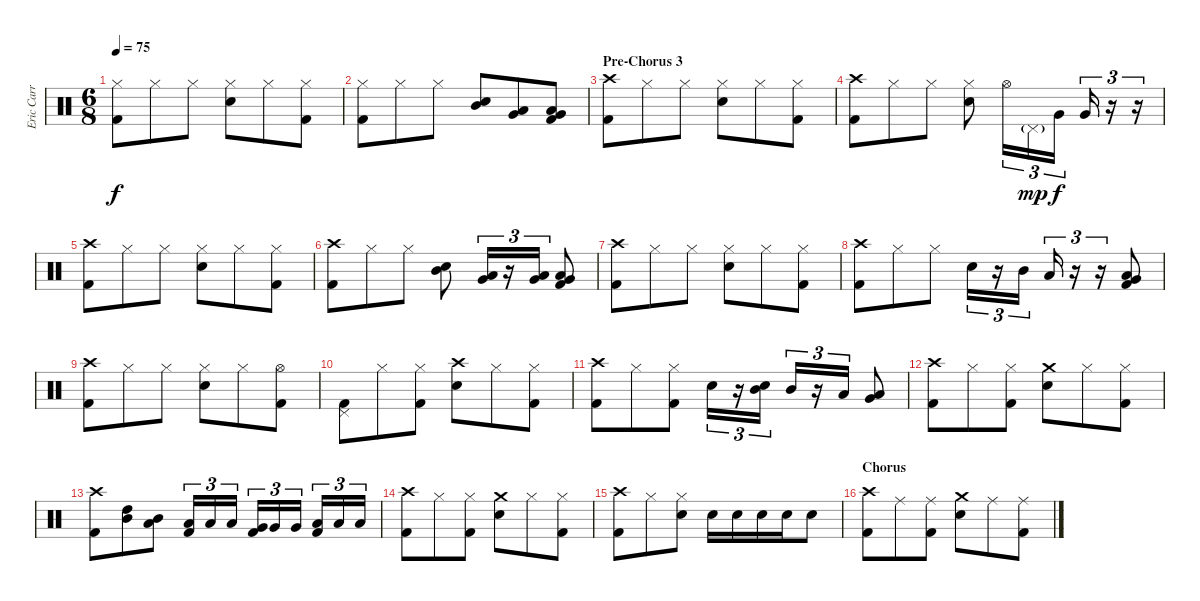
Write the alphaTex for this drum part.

\track ("Eric Carr" "Eric Carr") {instrument percussion}
\staff {score}
\articulation defaults
\ts (6 8)
\tempo 75
\clef neutral
\ks c
("Hi-Hat (closed)" "Kick (hit) 2").8{dy f} "Hi-Hat (closed)".8 "Hi-Hat (closed)".8 ("Hi-Hat (closed)" "Electric Snare (hit)").8 "Hi-Hat (closed)".8 ("Hi-Hat (closed)" "Kick (hit) 2").8 |
("Hi-Hat (closed)" "Kick (hit) 2").8 "Hi-Hat (closed)".8 "Hi-Hat (closed)".8 ("Mid Tom (hit)" "Electric Snare (hit)").8 ("Low Tom (hit)" "Very Low Tom (hit)").8 ("Very Low Tom (hit)" "Low Floor Tom (hit)" "Kick (hit) 2").8 |
\section ("" "Pre-Chorus 3")
("Crash high (hit)" "Kick (hit) 2").8 "Hi-Hat (closed)".8 "Hi-Hat (closed)".8 ("Hi-Hat (closed)" "Electric Snare (hit)").8 "Hi-Hat (closed)".8 ("Hi-Hat (closed)" "Kick (hit) 2").8 |
("Crash high (hit)" "Kick (hit) 2").8 "Hi-Hat (closed)".8 "Hi-Hat (closed)".8 ("Hi-Hat (closed)" "Electric Snare (hit)").8 "Hi-Hat (open)".16{tu (3 2)} "Pedal Hi-Hat (hit)"{g}.16{tu (3 2) dy mp} "Very Low Tom (hit)".16{tu (3 2) dy f} "Very Low Tom (hit)".16{tu (3 2)} r.16{tu (3 2)} r.16{tu (3 2)} |
("Crash high (hit)" "Kick (hit) 2").8 "Hi-Hat (closed)".8 "Hi-Hat (closed)".8 ("Hi-Hat (closed)" "Electric Snare (hit)").8 "Hi-Hat (closed)".8 ("Hi-Hat (closed)" "Kick (hit) 2").8 |
("Crash high (hit)" "Kick (hit) 2").8 "Hi-Hat (closed)".8 "Hi-Hat (closed)".8 ("Mid Tom (hit)" "Electric Snare (hit)").8 ("Low Tom (hit)" "Very Low Tom (hit)").16{tu (3 2)} r.16{tu (3 2)} ("Low Tom (hit)" "Very Low Tom (hit)").16{tu (3 2)} ("Very Low Tom (hit)" "Low Floor Tom (hit)" "Kick (hit) 2").8 |
("Crash high (hit)" "Kick (hit) 2").8 "Hi-Hat (closed)".8 "Hi-Hat (closed)".8 ("Hi-Hat (closed)" "Electric Snare (hit)").8 "Hi-Hat (closed)".8 ("Hi-Hat (closed)" "Kick (hit) 2").8 |
("Crash high (hit)" "Kick (hit) 2").8 "Hi-Hat (closed)".8 "Hi-Hat (closed)".8 "Electric Snare (hit)".16{tu (3 2)} r.16{tu (3 2)} "Mid Tom (hit)".16{tu (3 2)} "Low Tom (hit)".16{tu (3 2)} r.16{tu (3 2)} r.16{tu (3 2)} ("Very Low Tom (hit)" "Low Floor Tom (hit)" "Kick (hit) 2").8 |
("Crash high (hit)" "Kick (hit) 2").8 "Hi-Hat (closed)".8 "Hi-Hat (closed)".8 ("Hi-Hat (closed)" "Electric Snare (hit)").8 "Hi-Hat (closed)".8 ("Hi-Hat (open)" "Kick (hit) 2").8 |
("Pedal Hi-Hat (hit)" "Kick (hit) 2").8 "Hi-Hat (closed)".8 ("Hi-Hat (closed)" "Kick (hit) 2").8 ("Crash high (hit)" "Electric Snare (hit)").8 "Hi-Hat (closed)".8 ("Hi-Hat (closed)" "Kick (hit) 2").8 |
("Crash high (hit)" "Kick (hit) 2").8 "Hi-Hat (closed)".8 ("Hi-Hat (closed)" "Kick (hit) 2").8 "Electric Snare (hit)".16{tu (3 2)} r.16{tu (3 2)} ("Mid Tom (hit)" "Electric Snare (hit)").16{tu (3 2)} "Mid Tom (hit)".16{tu (3 2)} r.16{tu (3 2)} "Low Tom (hit)".16{tu (3 2)} ("Low Tom (hit)" "Very Low Tom (hit)").8 |
("Crash high (hit)" "Kick (hit) 2").8 "Hi-Hat (closed)".8 ("Hi-Hat (closed)" "Kick (hit) 2").8 ("Crash medium (hit)" "Electric Snare (hit)").8 "Hi-Hat (closed)".8 ("Hi-Hat (closed)" "Kick (hit) 2").8 |
("Crash high (hit)" "Kick (hit) 2").8 ("High Tom (hit)" "Mid Tom (hit)").8 ("Mid Tom (hit)" "Low Tom (hit)").8 ("Low Tom (hit)" "Kick (hit) 2").16{tu (3 2)} "Low Tom (hit)".16{tu (3 2)} "Low Tom (hit)".16{tu (3 2)} ("Very Low Tom (hit)" "Kick (hit) 2").16{tu (3 2)} "Very Low Tom (hit)".16{tu (3 2)} "Very Low Tom (hit)".16{tu (3 2)} ("Low Floor Tom (hit)" "Kick (hit) 2").16{tu (3 2)} "Low Floor Tom (hit)".16{tu (3 2)} "Low Floor Tom (hit)".16{tu (3 2)} |
("Crash high (hit)" "Kick (hit) 2").8 "Hi-Hat (closed)".8 ("Hi-Hat (closed)" "Kick (hit) 2").8 ("Crash medium (hit)" "Electric Snare (hit)").8 "Hi-Hat (closed)".8 ("Hi-Hat (closed)" "Kick (hit) 2").8 |
("Crash high (hit)" "Kick (hit) 2").8 "Hi-Hat (closed)".8 ("Hi-Hat (closed)" "Electric Snare (hit)").8 "Electric Snare (hit)".16 "Electric Snare (hit)".16 "Electric Snare (hit)".16 "Electric Snare (hit)".16 "Electric Snare (hit)".8 |
\section ("" "Chorus")
("Crash high (hit)" "Kick (hit) 2").8 "Ride (middle)".8 ("Ride (middle)" "Kick (hit) 2").8 ("Crash medium (hit)" "Electric Snare (hit)").8 "Ride (middle)".8 ("Ride (middle)" "Kick (hit) 2").8
